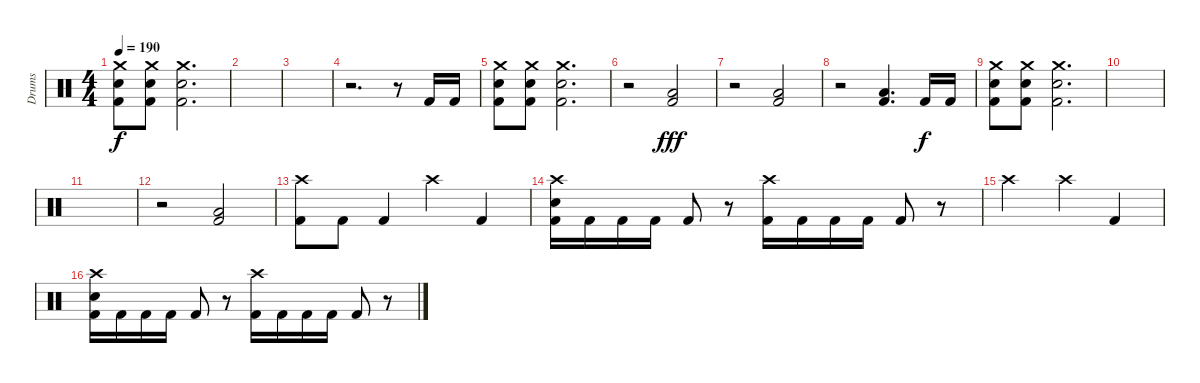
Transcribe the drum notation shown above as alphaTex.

\track ("Drums" "Drums") {instrument percussion}
\staff {score}
\articulation defaults
\ts (4 4)
\tempo 190
\clef neutral
\ks c
("Crash medium (hit)" "Electric Snare (hit)" "Kick (hit) 2").8{dy f} ("Crash medium (hit)" "Electric Snare (hit)" "Kick (hit) 2").8 ("Crash medium (hit)" "Electric Snare (hit)" "Kick (hit) 2").2{d} |
|
|
r.2{d} r.8 "Kick (hit) 2".16 "Kick (hit) 2".16 |
("Crash medium (hit)" "Electric Snare (hit)" "Kick (hit) 2").8 ("Crash medium (hit)" "Electric Snare (hit)" "Kick (hit) 2").8 ("Crash medium (hit)" "Electric Snare (hit)" "Kick (hit) 2").2{d} |
r.2 ("Low Floor Tom (hit)" "Kick (hit) 2").2{dy fff} |
r.2 ("Low Floor Tom (hit)" "Kick (hit) 2").2 |
r.2 ("Low Floor Tom (hit)" "Kick (hit) 2").4{d} "Kick (hit) 2".16{dy f} "Kick (hit) 2".16 |
("Crash medium (hit)" "Electric Snare (hit)" "Kick (hit) 2").8 ("Crash medium (hit)" "Electric Snare (hit)" "Kick (hit) 2").8 ("Crash medium (hit)" "Electric Snare (hit)" "Kick (hit) 2").2{d} |
|
|
r.2 ("Low Floor Tom (hit)" "Kick (hit) 2").2 |
("Crash high (hit)" "Kick (hit) 2").8 "Kick (hit) 2".8 "Kick (hit) 2".4 "Crash high (hit)".4 "Kick (hit) 2".4 |
("Crash high (hit)" "Electric Snare (hit)" "Kick (hit) 2").16 "Kick (hit) 2".16 "Kick (hit) 2".16 "Kick (hit) 2".16 "Kick (hit) 2".8 r.8 ("Crash high (hit)" "Kick (hit) 2").16 "Kick (hit) 2".16 "Kick (hit) 2".16 "Kick (hit) 2".16 "Kick (hit) 2".8 r.8 |
"Crash high (hit)".2 "Crash high (hit)".4 "Kick (hit) 2".4 |
("Crash high (hit)" "Electric Snare (hit)" "Kick (hit) 2").16 "Kick (hit) 2".16 "Kick (hit) 2".16 "Kick (hit) 2".16 "Kick (hit) 2".8 r.8 ("Crash high (hit)" "Kick (hit) 2").16 "Kick (hit) 2".16 "Kick (hit) 2".16 "Kick (hit) 2".16 "Kick (hit) 2".8 r.8
